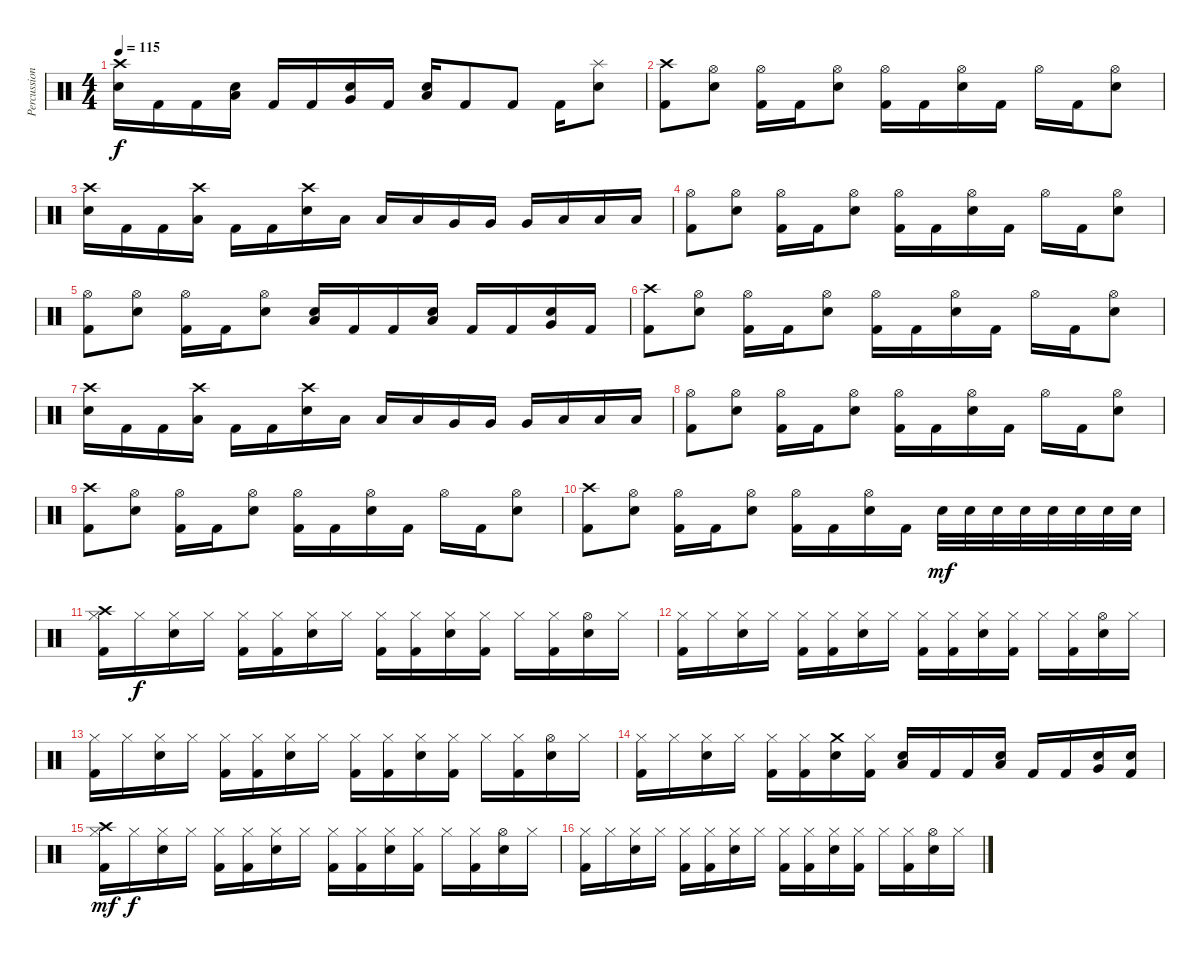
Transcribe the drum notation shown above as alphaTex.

\track ("Percussion" "Percussion") {instrument percussion}
\staff {score}
\articulation defaults
\ts (4 4)
\tempo 115
\clef neutral
\ks c
("Crash high (hit)" "Electric Snare (hit)").16{dy f} "Kick (hit) 2".16 "Kick (hit) 2".16 ("Low Tom (hit)" "Electric Snare (hit)").16 "Kick (hit) 2".16 "Kick (hit) 2".16 ("Very Low Tom (hit)" "Electric Snare (hit)").16 "Kick (hit) 2".16 ("Low Floor Tom (hit)" "Electric Snare (hit)").16 "Kick (hit) 2".8 "Kick (hit) 2".8 "Kick (hit) 2".16 ("Splash (hit)" "Electric Snare (hit)").8 |
("Crash high (hit)" "Kick (hit) 2").8 ("Hi-Hat (open)" "Electric Snare (hit)").8 ("Hi-Hat (open)" "Kick (hit) 2").16 "Kick (hit) 2".16 ("Hi-Hat (open)" "Electric Snare (hit)").8 ("Hi-Hat (open)" "Kick (hit) 2").16 "Kick (hit) 2".16 ("Hi-Hat (open)" "Electric Snare (hit)").16 "Kick (hit) 2".16 "Hi-Hat (open)".16 "Kick (hit) 2".16 ("Hi-Hat (open)" "Electric Snare (hit)").8 |
("Crash high (hit)" "Electric Snare (hit)").16 "Kick (hit) 2".16 "Kick (hit) 2".16 ("Crash high (hit)" "Low Tom (hit)").16 "Kick (hit) 2".16 "Kick (hit) 2".16 ("Crash high (hit)" "Electric Snare (hit)").16 "Low Tom (hit)".16 "Low Tom (hit)".16 "Low Tom (hit)".16 "Very Low Tom (hit)".16 "Very Low Tom (hit)".16 "Very Low Tom (hit)".16 "Low Floor Tom (hit)".16 "Low Floor Tom (hit)".16 "Low Floor Tom (hit)".16 |
("Hi-Hat (open)" "Kick (hit) 2").8 ("Hi-Hat (open)" "Electric Snare (hit)").8 ("Hi-Hat (open)" "Kick (hit) 2").16 "Kick (hit) 2".16 ("Hi-Hat (open)" "Electric Snare (hit)").8 ("Hi-Hat (open)" "Kick (hit) 2").16 "Kick (hit) 2".16 ("Hi-Hat (open)" "Electric Snare (hit)").16 "Kick (hit) 2".16 "Hi-Hat (open)".16 "Kick (hit) 2".16 ("Hi-Hat (open)" "Electric Snare (hit)").8 |
("Hi-Hat (open)" "Kick (hit) 2").8 ("Hi-Hat (open)" "Electric Snare (hit)").8 ("Hi-Hat (open)" "Kick (hit) 2").16 "Kick (hit) 2".16 ("Hi-Hat (open)" "Electric Snare (hit)").8 ("Low Tom (hit)" "Electric Snare (hit)").16 "Kick (hit) 2".16 "Kick (hit) 2".16 ("Low Tom (hit)" "Electric Snare (hit)").16 "Kick (hit) 2".16 "Kick (hit) 2".16 ("Very Low Tom (hit)" "Electric Snare (hit)").16 "Kick (hit) 2".16 |
("Crash high (hit)" "Kick (hit) 2").8 ("Hi-Hat (open)" "Electric Snare (hit)").8 ("Hi-Hat (open)" "Kick (hit) 2").16 "Kick (hit) 2".16 ("Hi-Hat (open)" "Electric Snare (hit)").8 ("Hi-Hat (open)" "Kick (hit) 2").16 "Kick (hit) 2".16 ("Hi-Hat (open)" "Electric Snare (hit)").16 "Kick (hit) 2".16 "Hi-Hat (open)".16 "Kick (hit) 2".16 ("Hi-Hat (open)" "Electric Snare (hit)").8 |
("Crash high (hit)" "Electric Snare (hit)").16 "Kick (hit) 2".16 "Kick (hit) 2".16 ("Crash high (hit)" "Low Tom (hit)").16 "Kick (hit) 2".16 "Kick (hit) 2".16 ("Crash high (hit)" "Electric Snare (hit)").16 "Low Tom (hit)".16 "Low Tom (hit)".16 "Low Tom (hit)".16 "Very Low Tom (hit)".16 "Very Low Tom (hit)".16 "Very Low Tom (hit)".16 "Low Floor Tom (hit)".16 "Low Floor Tom (hit)".16 "Low Floor Tom (hit)".16 |
("Hi-Hat (open)" "Kick (hit) 2").8 ("Hi-Hat (open)" "Electric Snare (hit)").8 ("Hi-Hat (open)" "Kick (hit) 2").16 "Kick (hit) 2".16 ("Hi-Hat (open)" "Electric Snare (hit)").8 ("Hi-Hat (open)" "Kick (hit) 2").16 "Kick (hit) 2".16 ("Hi-Hat (open)" "Electric Snare (hit)").16 "Kick (hit) 2".16 "Hi-Hat (open)".16 "Kick (hit) 2".16 ("Hi-Hat (open)" "Electric Snare (hit)").8 |
("Crash high (hit)" "Kick (hit) 2").8 ("Hi-Hat (open)" "Electric Snare (hit)").8 ("Hi-Hat (open)" "Kick (hit) 2").16 "Kick (hit) 2".16 ("Hi-Hat (open)" "Electric Snare (hit)").8 ("Hi-Hat (open)" "Kick (hit) 2").16 "Kick (hit) 2".16 ("Hi-Hat (open)" "Electric Snare (hit)").16 "Kick (hit) 2".16 "Hi-Hat (open)".16 "Kick (hit) 2".16 ("Hi-Hat (open)" "Electric Snare (hit)").8 |
("Crash high (hit)" "Kick (hit) 2").8 ("Hi-Hat (open)" "Electric Snare (hit)").8 ("Hi-Hat (open)" "Kick (hit) 2").16 "Kick (hit) 2".16 ("Hi-Hat (open)" "Electric Snare (hit)").8 ("Hi-Hat (open)" "Kick (hit) 2").16 "Kick (hit) 2".16 ("Hi-Hat (open)" "Electric Snare (hit)").16 "Kick (hit) 2".16 "Electric Snare (hit)".32{dy mf} "Electric Snare (hit)".32 "Electric Snare (hit)".32 "Electric Snare (hit)".32 "Electric Snare (hit)".32 "Electric Snare (hit)".32 "Electric Snare (hit)".32 "Electric Snare (hit)".32 |
("Crash high (hit)" "Hi-Hat (closed)" "Kick (hit) 2").16 "Hi-Hat (closed)".16{dy f} ("Hi-Hat (closed)" "Electric Snare (hit)").16 "Hi-Hat (closed)".16 ("Hi-Hat (closed)" "Kick (hit) 2").16 ("Hi-Hat (closed)" "Kick (hit) 2").16 ("Hi-Hat (closed)" "Electric Snare (hit)").16 "Hi-Hat (closed)".16 ("Hi-Hat (closed)" "Kick (hit) 2").16 ("Hi-Hat (closed)" "Kick (hit) 2").16 ("Hi-Hat (closed)" "Electric Snare (hit)").16 ("Hi-Hat (closed)" "Kick (hit) 2").16 "Hi-Hat (closed)".16 ("Hi-Hat (closed)" "Kick (hit) 2").16 ("Hi-Hat (open)" "Electric Snare (hit)").16 "Hi-Hat (closed)".16 |
("Hi-Hat (closed)" "Kick (hit) 2").16 "Hi-Hat (closed)".16 ("Hi-Hat (closed)" "Electric Snare (hit)").16 "Hi-Hat (closed)".16 ("Hi-Hat (closed)" "Kick (hit) 2").16 ("Hi-Hat (closed)" "Kick (hit) 2").16 ("Hi-Hat (closed)" "Electric Snare (hit)").16 "Hi-Hat (closed)".16 ("Hi-Hat (closed)" "Kick (hit) 2").16 ("Hi-Hat (closed)" "Kick (hit) 2").16 ("Hi-Hat (closed)" "Electric Snare (hit)").16 ("Hi-Hat (closed)" "Kick (hit) 2").16 "Hi-Hat (closed)".16 ("Hi-Hat (closed)" "Kick (hit) 2").16 ("Hi-Hat (open)" "Electric Snare (hit)").16 "Hi-Hat (closed)".16 |
("Hi-Hat (closed)" "Kick (hit) 2").16 "Hi-Hat (closed)".16 ("Hi-Hat (closed)" "Electric Snare (hit)").16 "Hi-Hat (closed)".16 ("Hi-Hat (closed)" "Kick (hit) 2").16 ("Hi-Hat (closed)" "Kick (hit) 2").16 ("Hi-Hat (closed)" "Electric Snare (hit)").16 "Hi-Hat (closed)".16 ("Hi-Hat (closed)" "Kick (hit) 2").16 ("Hi-Hat (closed)" "Kick (hit) 2").16 ("Hi-Hat (closed)" "Electric Snare (hit)").16 ("Hi-Hat (closed)" "Kick (hit) 2").16 "Hi-Hat (closed)".16 ("Hi-Hat (closed)" "Kick (hit) 2").16 ("Hi-Hat (open)" "Electric Snare (hit)").16 "Hi-Hat (closed)".16 |
("Hi-Hat (closed)" "Kick (hit) 2").16 "Hi-Hat (closed)".16 ("Hi-Hat (closed)" "Electric Snare (hit)").16 "Hi-Hat (closed)".16 ("Hi-Hat (closed)" "Kick (hit) 2").16 ("Hi-Hat (closed)" "Kick (hit) 2").16 ("Crash medium (hit)" "Electric Snare (hit)").16 ("Hi-Hat (closed)" "Kick (hit) 2").16 ("Low Tom (hit)" "Electric Snare (hit)").16 "Kick (hit) 2".16 "Kick (hit) 2".16 ("Low Tom (hit)" "Electric Snare (hit)").16 "Kick (hit) 2".16 "Kick (hit) 2".16 ("Very Low Tom (hit)" "Electric Snare (hit)").16 ("Electric Snare (hit)" "Kick (hit) 2").16 |
("Crash high (hit)" "Hi-Hat (closed)" "Kick (hit) 2").16{dy mf} "Hi-Hat (closed)".16{dy f} ("Hi-Hat (closed)" "Electric Snare (hit)").16 "Hi-Hat (closed)".16 ("Hi-Hat (closed)" "Kick (hit) 2").16 ("Hi-Hat (closed)" "Kick (hit) 2").16 ("Hi-Hat (closed)" "Electric Snare (hit)").16 "Hi-Hat (closed)".16 ("Hi-Hat (closed)" "Kick (hit) 2").16 ("Hi-Hat (closed)" "Kick (hit) 2").16 ("Hi-Hat (closed)" "Electric Snare (hit)").16 ("Hi-Hat (closed)" "Kick (hit) 2").16 "Hi-Hat (closed)".16 ("Hi-Hat (closed)" "Kick (hit) 2").16 ("Hi-Hat (open)" "Electric Snare (hit)").16 "Hi-Hat (closed)".16 |
("Hi-Hat (closed)" "Kick (hit) 2").16 "Hi-Hat (closed)".16 ("Hi-Hat (closed)" "Electric Snare (hit)").16 "Hi-Hat (closed)".16 ("Hi-Hat (closed)" "Kick (hit) 2").16 ("Hi-Hat (closed)" "Kick (hit) 2").16 ("Hi-Hat (closed)" "Electric Snare (hit)").16 "Hi-Hat (closed)".16 ("Hi-Hat (closed)" "Kick (hit) 2").16 ("Hi-Hat (closed)" "Kick (hit) 2").16 ("Hi-Hat (closed)" "Electric Snare (hit)").16 ("Hi-Hat (closed)" "Kick (hit) 2").16 "Hi-Hat (closed)".16 ("Hi-Hat (closed)" "Kick (hit) 2").16 ("Hi-Hat (open)" "Electric Snare (hit)").16 "Hi-Hat (closed)".16
